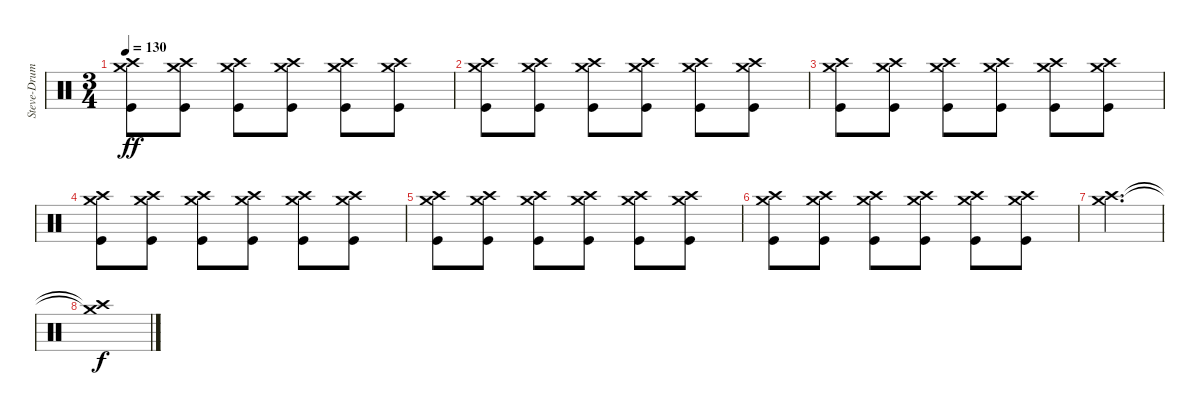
\track ("Steve-Drums" "Steve-Drum") {instrument percussion}
\staff {score}
\articulation defaults
\ts (3 4)
\tempo 130
\clef neutral
\ks c
("Crash medium (hit)" "Crash high (hit)" "Kick (hit)").8{dy ff} ("Crash medium (hit)" "Crash high (hit)" "Kick (hit)").8 ("Crash medium (hit)" "Crash high (hit)" "Kick (hit)").8 ("Crash medium (hit)" "Crash high (hit)" "Kick (hit)").8 ("Crash medium (hit)" "Crash high (hit)" "Kick (hit)").8 ("Crash medium (hit)" "Crash high (hit)" "Kick (hit)").8 |
("Crash medium (hit)" "Crash high (hit)" "Kick (hit)").8 ("Crash medium (hit)" "Crash high (hit)" "Kick (hit)").8 ("Crash medium (hit)" "Crash high (hit)" "Kick (hit)").8 ("Crash medium (hit)" "Crash high (hit)" "Kick (hit)").8 ("Crash medium (hit)" "Crash high (hit)" "Kick (hit)").8 ("Crash medium (hit)" "Crash high (hit)" "Kick (hit)").8 |
("Crash medium (hit)" "Crash high (hit)" "Kick (hit)").8 ("Crash medium (hit)" "Crash high (hit)" "Kick (hit)").8 ("Crash medium (hit)" "Crash high (hit)" "Kick (hit)").8 ("Crash medium (hit)" "Crash high (hit)" "Kick (hit)").8 ("Crash medium (hit)" "Crash high (hit)" "Kick (hit)").8 ("Crash medium (hit)" "Crash high (hit)" "Kick (hit)").8 |
("Crash medium (hit)" "Crash high (hit)" "Kick (hit)").8 ("Crash medium (hit)" "Crash high (hit)" "Kick (hit)").8 ("Crash medium (hit)" "Crash high (hit)" "Kick (hit)").8 ("Crash medium (hit)" "Crash high (hit)" "Kick (hit)").8 ("Crash medium (hit)" "Crash high (hit)" "Kick (hit)").8 ("Crash medium (hit)" "Crash high (hit)" "Kick (hit)").8 |
("Crash medium (hit)" "Crash high (hit)" "Kick (hit)").8 ("Crash medium (hit)" "Crash high (hit)" "Kick (hit)").8 ("Crash medium (hit)" "Crash high (hit)" "Kick (hit)").8 ("Crash medium (hit)" "Crash high (hit)" "Kick (hit)").8 ("Crash medium (hit)" "Crash high (hit)" "Kick (hit)").8 ("Crash medium (hit)" "Crash high (hit)" "Kick (hit)").8 |
("Crash medium (hit)" "Crash high (hit)" "Kick (hit)").8 ("Crash medium (hit)" "Crash high (hit)" "Kick (hit)").8 ("Crash medium (hit)" "Crash high (hit)" "Kick (hit)").8 ("Crash medium (hit)" "Crash high (hit)" "Kick (hit)").8 ("Crash medium (hit)" "Crash high (hit)" "Kick (hit)").8 ("Crash medium (hit)" "Crash high (hit)" "Kick (hit)").8 |
("Crash medium (hit)" "Crash high (hit)").2{d} |
("Crash medium (hit)"{t} "Crash high (hit)"{t}).1{dy f}
